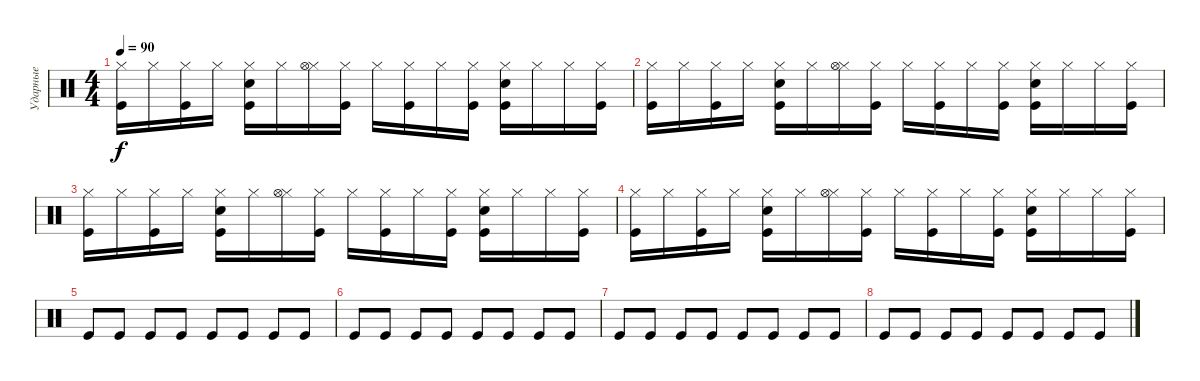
\track ("Ударные" "Ударные") {instrument percussion}
\staff {score}
\articulation defaults
\ts (4 4)
\tempo 90
\clef neutral
\ks c
("Hi-Hat (closed)" "Kick (hit)").16{dy f} "Hi-Hat (closed)".16 ("Hi-Hat (closed)" "Kick (hit)").16 "Hi-Hat (closed)".16 ("Hi-Hat (closed)" "Kick (hit)" "Snare (hit) 2").16 "Hi-Hat (closed)".16 ("Hi-Hat (closed)" "Hi-Hat (open)").16 ("Hi-Hat (closed)" "Kick (hit)").16 "Hi-Hat (closed)".16 ("Hi-Hat (closed)" "Kick (hit)").16 "Hi-Hat (closed)".16 ("Hi-Hat (closed)" "Kick (hit)").16 ("Hi-Hat (closed)" "Kick (hit)" "Snare (hit) 2").16 "Hi-Hat (closed)".16 "Hi-Hat (closed)".16 ("Hi-Hat (closed)" "Kick (hit)").16 |
("Hi-Hat (closed)" "Kick (hit)").16 "Hi-Hat (closed)".16 ("Hi-Hat (closed)" "Kick (hit)").16 "Hi-Hat (closed)".16 ("Hi-Hat (closed)" "Kick (hit)" "Snare (hit) 2").16 "Hi-Hat (closed)".16 ("Hi-Hat (closed)" "Hi-Hat (open)").16 ("Hi-Hat (closed)" "Kick (hit)").16 "Hi-Hat (closed)".16 ("Hi-Hat (closed)" "Kick (hit)").16 "Hi-Hat (closed)".16 ("Hi-Hat (closed)" "Kick (hit)").16 ("Hi-Hat (closed)" "Kick (hit)" "Snare (hit) 2").16 "Hi-Hat (closed)".16 "Hi-Hat (closed)".16 ("Hi-Hat (closed)" "Kick (hit)").16 |
("Hi-Hat (closed)" "Kick (hit)").16 "Hi-Hat (closed)".16 ("Hi-Hat (closed)" "Kick (hit)").16 "Hi-Hat (closed)".16 ("Hi-Hat (closed)" "Kick (hit)" "Snare (hit) 2").16 "Hi-Hat (closed)".16 ("Hi-Hat (closed)" "Hi-Hat (open)").16 ("Hi-Hat (closed)" "Kick (hit)").16 "Hi-Hat (closed)".16 ("Hi-Hat (closed)" "Kick (hit)").16 "Hi-Hat (closed)".16 ("Hi-Hat (closed)" "Kick (hit)").16 ("Hi-Hat (closed)" "Kick (hit)" "Snare (hit) 2").16 "Hi-Hat (closed)".16 "Hi-Hat (closed)".16 ("Hi-Hat (closed)" "Kick (hit)").16 |
("Hi-Hat (closed)" "Kick (hit)").16 "Hi-Hat (closed)".16 ("Hi-Hat (closed)" "Kick (hit)").16 "Hi-Hat (closed)".16 ("Hi-Hat (closed)" "Kick (hit)" "Snare (hit) 2").16 "Hi-Hat (closed)".16 ("Hi-Hat (closed)" "Hi-Hat (open)").16 ("Hi-Hat (closed)" "Kick (hit)").16 "Hi-Hat (closed)".16 ("Hi-Hat (closed)" "Kick (hit)").16 "Hi-Hat (closed)".16 ("Hi-Hat (closed)" "Kick (hit)").16 ("Hi-Hat (closed)" "Kick (hit)" "Snare (hit) 2").16 "Hi-Hat (closed)".16 "Hi-Hat (closed)".16 ("Hi-Hat (closed)" "Kick (hit)").16 |
"Kick (hit)".8 "Kick (hit)".8 "Kick (hit)".8 "Kick (hit)".8 "Kick (hit)".8 "Kick (hit)".8 "Kick (hit)".8 "Kick (hit)".8 |
"Kick (hit)".8 "Kick (hit)".8 "Kick (hit)".8 "Kick (hit)".8 "Kick (hit)".8 "Kick (hit)".8 "Kick (hit)".8 "Kick (hit)".8 |
"Kick (hit)".8 "Kick (hit)".8 "Kick (hit)".8 "Kick (hit)".8 "Kick (hit)".8 "Kick (hit)".8 "Kick (hit)".8 "Kick (hit)".8 |
"Kick (hit)".8 "Kick (hit)".8 "Kick (hit)".8 "Kick (hit)".8 "Kick (hit)".8 "Kick (hit)".8 "Kick (hit)".8 "Kick (hit)".8
